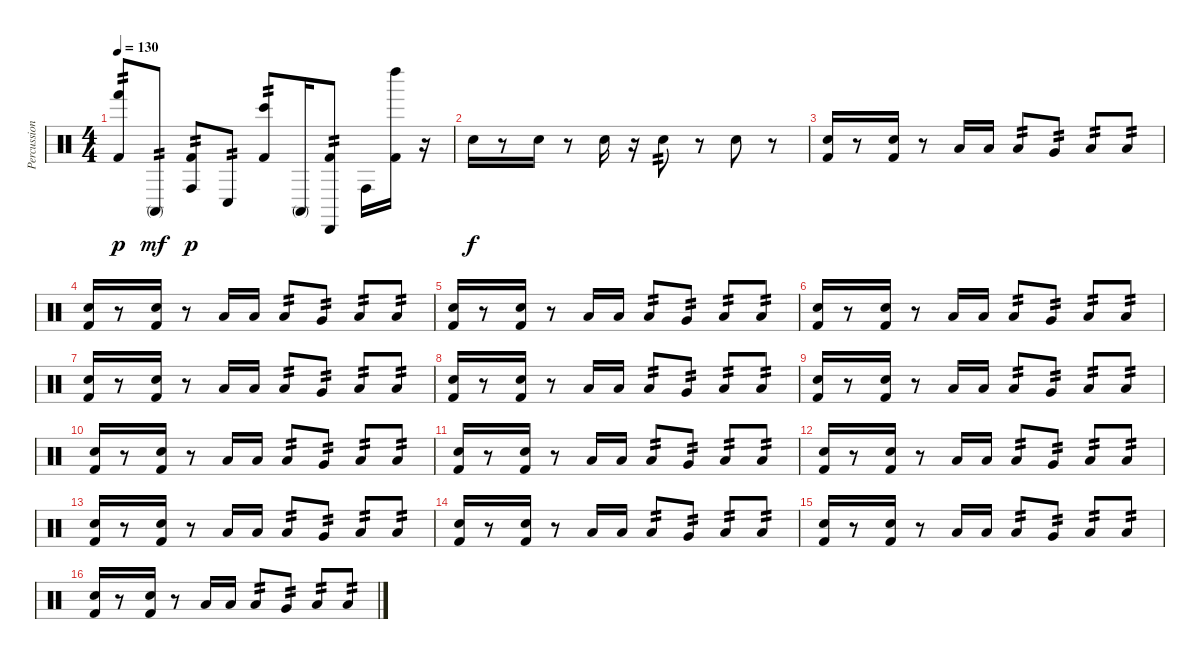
\track ("Percussion" "Percussion") {instrument percussion}
\staff {score}
\articulation defaults
\ts (4 4)
\tempo 130
\clef neutral
\ks c
("Kick (hit) 2" "Hand (hit)").8{tp 2 dy p} "Conga high (mute)".8{tp 2 dy mf} ("Kick (hit) 2" "Conga high (hit)").8{tp 2 dy p} "Conga low (hit)".8{tp 2} ("Kick (hit) 2" "Bongo High (hit)").8{tp 2} "Conga high (mute)".16 ("Kick (hit) 2" "Cabasa (hit)").8{tp 2} "Conga high (hit)".16 ("Kick (hit) 2" "Left Maraca (hit)").16 r.16 |
"Snare (hit) 2".16{dy f} r.8 "Snare (hit) 2".16 r.8 "Snare (hit) 2".16 r.16 "Snare (hit) 2".8{tp 2} r.8 "Snare (hit) 2".8 r.8 |
("Snare (hit) 2" "Kick (hit) 2").16 r.8 ("Snare (hit) 2" "Kick (hit) 2").16 r.8 "Low Tom (hit)".16 "Low Tom (hit)".16 "Low Tom (hit)".8{tp 2} "Very Low Tom (hit)".8{tp 2} "Low Floor Tom (hit)".8{tp 2} "Low Floor Tom (hit)".8{tp 2} |
("Snare (hit) 2" "Kick (hit) 2").16 r.8 ("Snare (hit) 2" "Kick (hit) 2").16 r.8 "Low Tom (hit)".16 "Low Tom (hit)".16 "Low Tom (hit)".8{tp 2} "Very Low Tom (hit)".8{tp 2} "Low Floor Tom (hit)".8{tp 2} "Low Floor Tom (hit)".8{tp 2} |
("Snare (hit) 2" "Kick (hit) 2").16 r.8 ("Snare (hit) 2" "Kick (hit) 2").16 r.8 "Low Tom (hit)".16 "Low Tom (hit)".16 "Low Tom (hit)".8{tp 2} "Very Low Tom (hit)".8{tp 2} "Low Floor Tom (hit)".8{tp 2} "Low Floor Tom (hit)".8{tp 2} |
("Snare (hit) 2" "Kick (hit) 2").16 r.8 ("Snare (hit) 2" "Kick (hit) 2").16 r.8 "Low Tom (hit)".16 "Low Tom (hit)".16 "Low Tom (hit)".8{tp 2} "Very Low Tom (hit)".8{tp 2} "Low Floor Tom (hit)".8{tp 2} "Low Floor Tom (hit)".8{tp 2} |
("Snare (hit) 2" "Kick (hit) 2").16 r.8 ("Snare (hit) 2" "Kick (hit) 2").16 r.8 "Low Tom (hit)".16 "Low Tom (hit)".16 "Low Tom (hit)".8{tp 2} "Very Low Tom (hit)".8{tp 2} "Low Floor Tom (hit)".8{tp 2} "Low Floor Tom (hit)".8{tp 2} |
("Snare (hit) 2" "Kick (hit) 2").16 r.8 ("Snare (hit) 2" "Kick (hit) 2").16 r.8 "Low Tom (hit)".16 "Low Tom (hit)".16 "Low Tom (hit)".8{tp 2} "Very Low Tom (hit)".8{tp 2} "Low Floor Tom (hit)".8{tp 2} "Low Floor Tom (hit)".8{tp 2} |
("Snare (hit) 2" "Kick (hit) 2").16 r.8 ("Snare (hit) 2" "Kick (hit) 2").16 r.8 "Low Tom (hit)".16 "Low Tom (hit)".16 "Low Tom (hit)".8{tp 2} "Very Low Tom (hit)".8{tp 2} "Low Floor Tom (hit)".8{tp 2} "Low Floor Tom (hit)".8{tp 2} |
("Snare (hit) 2" "Kick (hit) 2").16 r.8 ("Snare (hit) 2" "Kick (hit) 2").16 r.8 "Low Tom (hit)".16 "Low Tom (hit)".16 "Low Tom (hit)".8{tp 2} "Very Low Tom (hit)".8{tp 2} "Low Floor Tom (hit)".8{tp 2} "Low Floor Tom (hit)".8{tp 2} |
("Snare (hit) 2" "Kick (hit) 2").16 r.8 ("Snare (hit) 2" "Kick (hit) 2").16 r.8 "Low Tom (hit)".16 "Low Tom (hit)".16 "Low Tom (hit)".8{tp 2} "Very Low Tom (hit)".8{tp 2} "Low Floor Tom (hit)".8{tp 2} "Low Floor Tom (hit)".8{tp 2} |
("Snare (hit) 2" "Kick (hit) 2").16 r.8 ("Snare (hit) 2" "Kick (hit) 2").16 r.8 "Low Tom (hit)".16 "Low Tom (hit)".16 "Low Tom (hit)".8{tp 2} "Very Low Tom (hit)".8{tp 2} "Low Floor Tom (hit)".8{tp 2} "Low Floor Tom (hit)".8{tp 2} |
("Snare (hit) 2" "Kick (hit) 2").16 r.8 ("Snare (hit) 2" "Kick (hit) 2").16 r.8 "Low Tom (hit)".16 "Low Tom (hit)".16 "Low Tom (hit)".8{tp 2} "Very Low Tom (hit)".8{tp 2} "Low Floor Tom (hit)".8{tp 2} "Low Floor Tom (hit)".8{tp 2} |
("Snare (hit) 2" "Kick (hit) 2").16 r.8 ("Snare (hit) 2" "Kick (hit) 2").16 r.8 "Low Tom (hit)".16 "Low Tom (hit)".16 "Low Tom (hit)".8{tp 2} "Very Low Tom (hit)".8{tp 2} "Low Floor Tom (hit)".8{tp 2} "Low Floor Tom (hit)".8{tp 2} |
("Snare (hit) 2" "Kick (hit) 2").16 r.8 ("Snare (hit) 2" "Kick (hit) 2").16 r.8 "Low Tom (hit)".16 "Low Tom (hit)".16 "Low Tom (hit)".8{tp 2} "Very Low Tom (hit)".8{tp 2} "Low Floor Tom (hit)".8{tp 2} "Low Floor Tom (hit)".8{tp 2} |
("Snare (hit) 2" "Kick (hit) 2").16 r.8 ("Snare (hit) 2" "Kick (hit) 2").16 r.8 "Low Tom (hit)".16 "Low Tom (hit)".16 "Low Tom (hit)".8{tp 2} "Very Low Tom (hit)".8{tp 2} "Low Floor Tom (hit)".8{tp 2} "Low Floor Tom (hit)".8{tp 2}
